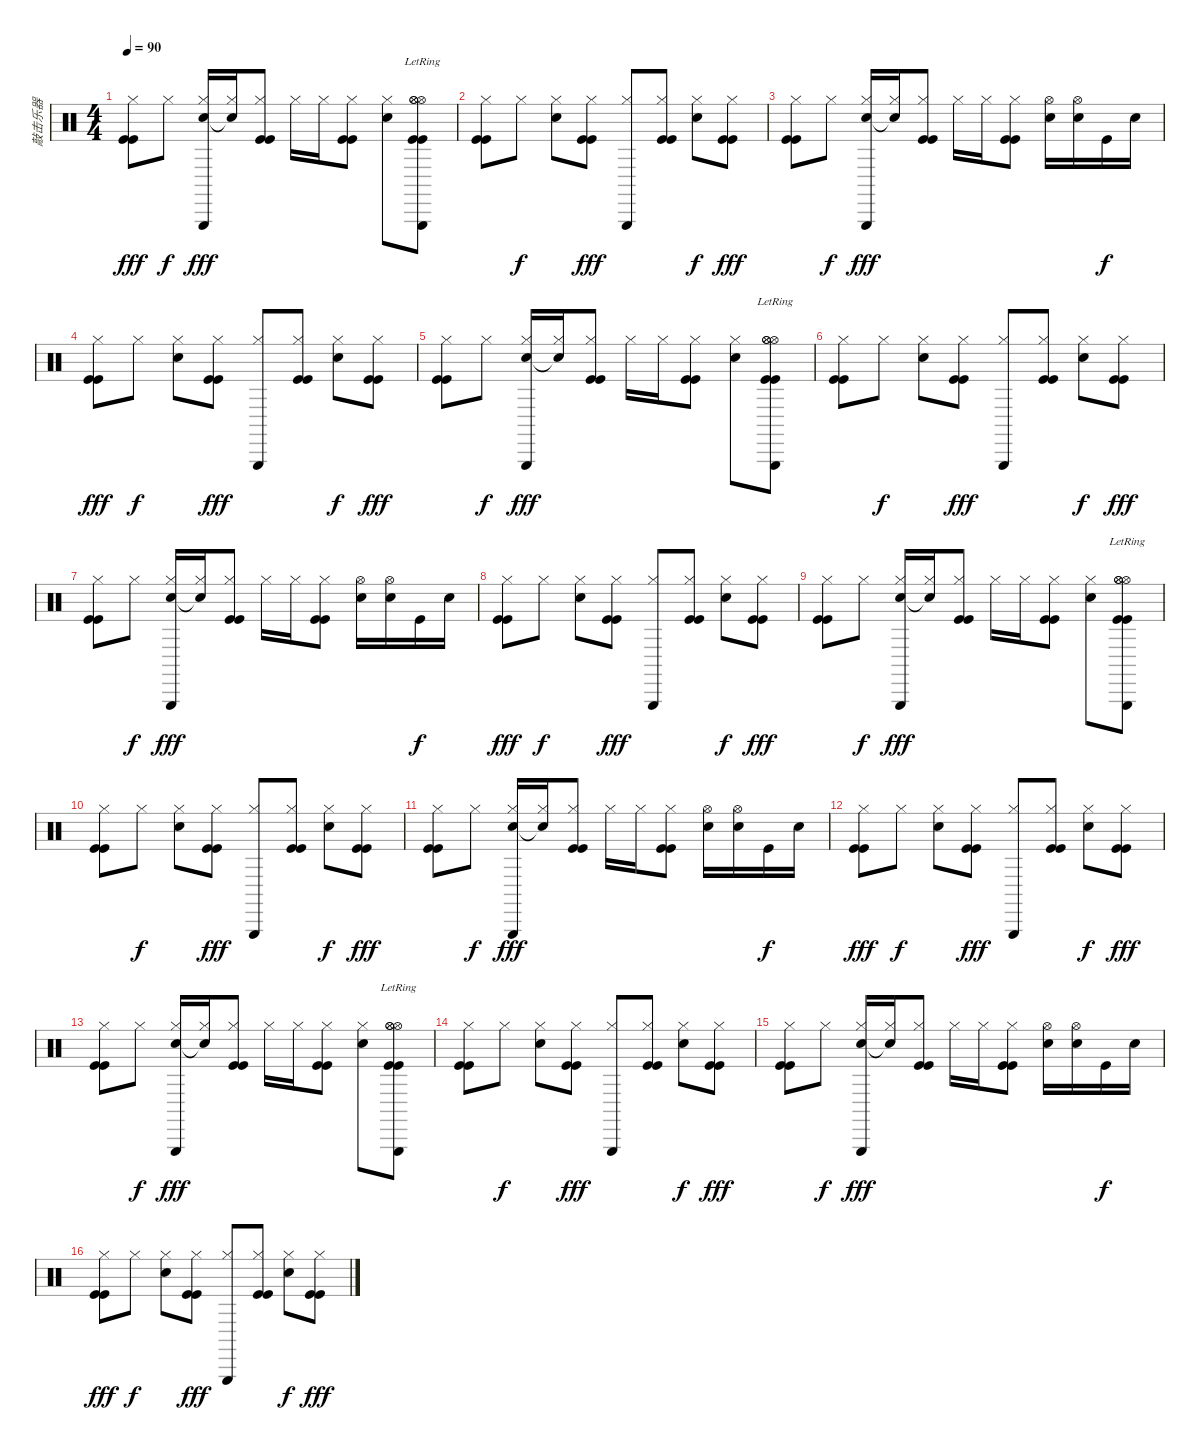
\track ("敲击乐器" "敲击乐器") {instrument percussion}
\staff {score}
\articulation defaults
\ts (4 4)
\tempo 90
\clef neutral
\ks c
("Hi-Hat (closed)" "Kick (hit)" "Kick (hit)").8{dy fff} "Hi-Hat (closed)".8{dy f} ("Hi-Hat (closed)" "Electric Snare (hit)" "Triangle (hit)").16{dy fff} ("Hi-Hat (closed)" "Snare (hit)"{t}).16 ("Hi-Hat (closed)" "Kick (hit)" "Kick (hit)").8 "Hi-Hat (closed)".16 "Hi-Hat (closed)".16 ("Hi-Hat (closed)" "Kick (hit)" "Kick (hit)").8 ("Hi-Hat (closed)" "Electric Snare (hit)").8 ("Hi-Hat (open)" "Hi-Hat (open)" "Hi-Hat (open)" "Triangle (hit)"{lr} "Kick (hit)" "Kick (hit)").8 |
("Hi-Hat (closed)" "Kick (hit)" "Kick (hit)").8 "Hi-Hat (closed)".8{dy f} ("Hi-Hat (closed)" "Electric Snare (hit)").8 ("Hi-Hat (closed)" "Kick (hit)" "Kick (hit)").8{dy fff} ("Hi-Hat (closed)" "Triangle (hit)").8 ("Hi-Hat (closed)" "Kick (hit)" "Kick (hit)").8 ("Hi-Hat (closed)" "Electric Snare (hit)").8{dy f} ("Hi-Hat (closed)" "Kick (hit)" "Kick (hit)").8{dy fff} |
("Hi-Hat (closed)" "Kick (hit)" "Kick (hit)").8 "Hi-Hat (closed)".8{dy f} ("Hi-Hat (closed)" "Electric Snare (hit)" "Triangle (hit)").16{dy fff} ("Hi-Hat (closed)" "Snare (hit)"{t}).16 ("Hi-Hat (closed)" "Kick (hit)" "Kick (hit)").8 "Hi-Hat (closed)".16 "Hi-Hat (closed)".16 ("Hi-Hat (closed)" "Kick (hit)" "Kick (hit)").8 ("Hi-Hat (open)" "Electric Snare (hit)").16 ("Hi-Hat (open)" "Electric Snare (hit)").16 "Kick (hit)".16{dy f} "Electric Snare (hit)".16 |
("Hi-Hat (closed)" "Kick (hit)" "Kick (hit)").8{dy fff} "Hi-Hat (closed)".8{dy f} ("Hi-Hat (closed)" "Electric Snare (hit)").8 ("Hi-Hat (closed)" "Kick (hit)" "Kick (hit)").8{dy fff} ("Hi-Hat (closed)" "Triangle (hit)").8 ("Hi-Hat (closed)" "Kick (hit)" "Kick (hit)").8 ("Hi-Hat (closed)" "Electric Snare (hit)").8{dy f} ("Hi-Hat (closed)" "Kick (hit)" "Kick (hit)").8{dy fff} |
("Hi-Hat (closed)" "Kick (hit)" "Kick (hit)").8 "Hi-Hat (closed)".8{dy f} ("Hi-Hat (closed)" "Electric Snare (hit)" "Triangle (hit)").16{dy fff} ("Hi-Hat (closed)" "Snare (hit)"{t}).16 ("Hi-Hat (closed)" "Kick (hit)" "Kick (hit)").8 "Hi-Hat (closed)".16 "Hi-Hat (closed)".16 ("Hi-Hat (closed)" "Kick (hit)" "Kick (hit)").8 ("Hi-Hat (closed)" "Electric Snare (hit)").8 ("Hi-Hat (open)" "Hi-Hat (open)" "Hi-Hat (open)" "Triangle (hit)"{lr} "Kick (hit)" "Kick (hit)").8 |
("Hi-Hat (closed)" "Kick (hit)" "Kick (hit)").8 "Hi-Hat (closed)".8{dy f} ("Hi-Hat (closed)" "Electric Snare (hit)").8 ("Hi-Hat (closed)" "Kick (hit)" "Kick (hit)").8{dy fff} ("Hi-Hat (closed)" "Triangle (hit)").8 ("Hi-Hat (closed)" "Kick (hit)" "Kick (hit)").8 ("Hi-Hat (closed)" "Electric Snare (hit)").8{dy f} ("Hi-Hat (closed)" "Kick (hit)" "Kick (hit)").8{dy fff} |
("Hi-Hat (closed)" "Kick (hit)" "Kick (hit)").8 "Hi-Hat (closed)".8{dy f} ("Hi-Hat (closed)" "Electric Snare (hit)" "Triangle (hit)").16{dy fff} ("Hi-Hat (closed)" "Snare (hit)"{t}).16 ("Hi-Hat (closed)" "Kick (hit)" "Kick (hit)").8 "Hi-Hat (closed)".16 "Hi-Hat (closed)".16 ("Hi-Hat (closed)" "Kick (hit)" "Kick (hit)").8 ("Hi-Hat (open)" "Electric Snare (hit)").16 ("Hi-Hat (open)" "Electric Snare (hit)").16 "Kick (hit)".16{dy f} "Electric Snare (hit)".16 |
("Hi-Hat (closed)" "Kick (hit)" "Kick (hit)").8{dy fff} "Hi-Hat (closed)".8{dy f} ("Hi-Hat (closed)" "Electric Snare (hit)").8 ("Hi-Hat (closed)" "Kick (hit)" "Kick (hit)").8{dy fff} ("Hi-Hat (closed)" "Triangle (hit)").8 ("Hi-Hat (closed)" "Kick (hit)" "Kick (hit)").8 ("Hi-Hat (closed)" "Electric Snare (hit)").8{dy f} ("Hi-Hat (closed)" "Kick (hit)" "Kick (hit)").8{dy fff} |
("Hi-Hat (closed)" "Kick (hit)" "Kick (hit)").8 "Hi-Hat (closed)".8{dy f} ("Hi-Hat (closed)" "Electric Snare (hit)" "Triangle (hit)").16{dy fff} ("Hi-Hat (closed)" "Snare (hit)"{t}).16 ("Hi-Hat (closed)" "Kick (hit)" "Kick (hit)").8 "Hi-Hat (closed)".16 "Hi-Hat (closed)".16 ("Hi-Hat (closed)" "Kick (hit)" "Kick (hit)").8 ("Hi-Hat (closed)" "Electric Snare (hit)").8 ("Hi-Hat (open)" "Hi-Hat (open)" "Hi-Hat (open)" "Triangle (hit)"{lr} "Kick (hit)" "Kick (hit)").8 |
("Hi-Hat (closed)" "Kick (hit)" "Kick (hit)").8 "Hi-Hat (closed)".8{dy f} ("Hi-Hat (closed)" "Electric Snare (hit)").8 ("Hi-Hat (closed)" "Kick (hit)" "Kick (hit)").8{dy fff} ("Hi-Hat (closed)" "Triangle (hit)").8 ("Hi-Hat (closed)" "Kick (hit)" "Kick (hit)").8 ("Hi-Hat (closed)" "Electric Snare (hit)").8{dy f} ("Hi-Hat (closed)" "Kick (hit)" "Kick (hit)").8{dy fff} |
("Hi-Hat (closed)" "Kick (hit)" "Kick (hit)").8 "Hi-Hat (closed)".8{dy f} ("Hi-Hat (closed)" "Electric Snare (hit)" "Triangle (hit)").16{dy fff} ("Hi-Hat (closed)" "Snare (hit)"{t}).16 ("Hi-Hat (closed)" "Kick (hit)" "Kick (hit)").8 "Hi-Hat (closed)".16 "Hi-Hat (closed)".16 ("Hi-Hat (closed)" "Kick (hit)" "Kick (hit)").8 ("Hi-Hat (open)" "Electric Snare (hit)").16 ("Hi-Hat (open)" "Electric Snare (hit)").16 "Kick (hit)".16{dy f} "Electric Snare (hit)".16 |
("Hi-Hat (closed)" "Kick (hit)" "Kick (hit)").8{dy fff} "Hi-Hat (closed)".8{dy f} ("Hi-Hat (closed)" "Electric Snare (hit)").8 ("Hi-Hat (closed)" "Kick (hit)" "Kick (hit)").8{dy fff} ("Hi-Hat (closed)" "Triangle (hit)").8 ("Hi-Hat (closed)" "Kick (hit)" "Kick (hit)").8 ("Hi-Hat (closed)" "Electric Snare (hit)").8{dy f} ("Hi-Hat (closed)" "Kick (hit)" "Kick (hit)").8{dy fff} |
("Hi-Hat (closed)" "Kick (hit)" "Kick (hit)").8 "Hi-Hat (closed)".8{dy f} ("Hi-Hat (closed)" "Electric Snare (hit)" "Triangle (hit)").16{dy fff} ("Hi-Hat (closed)" "Snare (hit)"{t}).16 ("Hi-Hat (closed)" "Kick (hit)" "Kick (hit)").8 "Hi-Hat (closed)".16 "Hi-Hat (closed)".16 ("Hi-Hat (closed)" "Kick (hit)" "Kick (hit)").8 ("Hi-Hat (closed)" "Electric Snare (hit)").8 ("Hi-Hat (open)" "Hi-Hat (open)" "Hi-Hat (open)" "Triangle (hit)"{lr} "Kick (hit)" "Kick (hit)").8 |
("Hi-Hat (closed)" "Kick (hit)" "Kick (hit)").8 "Hi-Hat (closed)".8{dy f} ("Hi-Hat (closed)" "Electric Snare (hit)").8 ("Hi-Hat (closed)" "Kick (hit)" "Kick (hit)").8{dy fff} ("Hi-Hat (closed)" "Triangle (hit)").8 ("Hi-Hat (closed)" "Kick (hit)" "Kick (hit)").8 ("Hi-Hat (closed)" "Electric Snare (hit)").8{dy f} ("Hi-Hat (closed)" "Kick (hit)" "Kick (hit)").8{dy fff} |
("Hi-Hat (closed)" "Kick (hit)" "Kick (hit)").8 "Hi-Hat (closed)".8{dy f} ("Hi-Hat (closed)" "Electric Snare (hit)" "Triangle (hit)").16{dy fff} ("Hi-Hat (closed)" "Snare (hit)"{t}).16 ("Hi-Hat (closed)" "Kick (hit)" "Kick (hit)").8 "Hi-Hat (closed)".16 "Hi-Hat (closed)".16 ("Hi-Hat (closed)" "Kick (hit)" "Kick (hit)").8 ("Hi-Hat (open)" "Electric Snare (hit)").16 ("Hi-Hat (open)" "Electric Snare (hit)").16 "Kick (hit)".16{dy f} "Electric Snare (hit)".16 |
("Hi-Hat (closed)" "Kick (hit)" "Kick (hit)").8{dy fff} "Hi-Hat (closed)".8{dy f} ("Hi-Hat (closed)" "Electric Snare (hit)").8 ("Hi-Hat (closed)" "Kick (hit)" "Kick (hit)").8{dy fff} ("Hi-Hat (closed)" "Triangle (hit)").8 ("Hi-Hat (closed)" "Kick (hit)" "Kick (hit)").8 ("Hi-Hat (closed)" "Electric Snare (hit)").8{dy f} ("Hi-Hat (closed)" "Kick (hit)" "Kick (hit)").8{dy fff}
